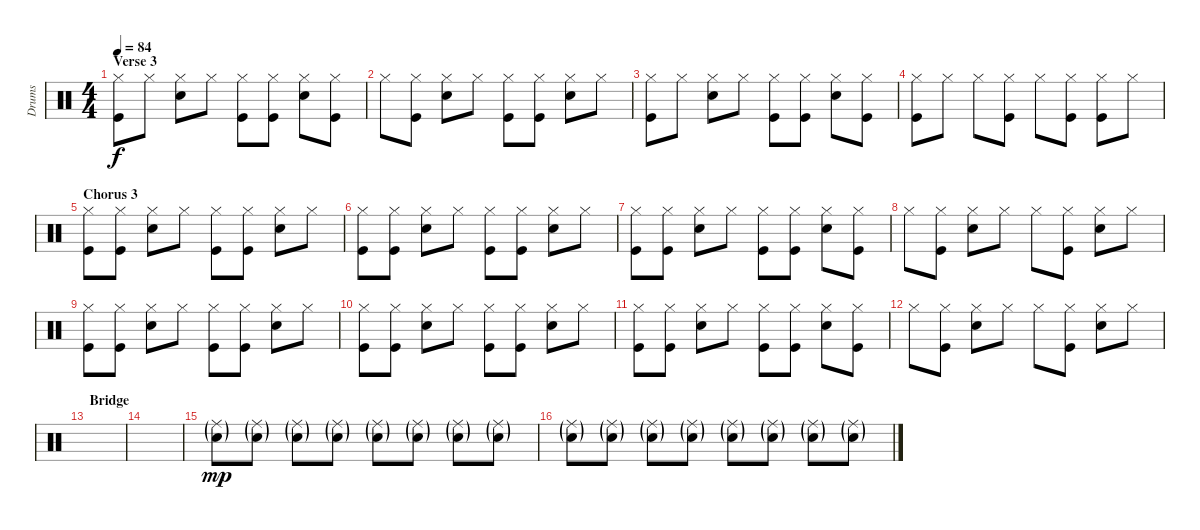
\track ("Drums" "Drums") {instrument percussion}
\staff {score}
\articulation defaults
\ts (4 4)
\section ("" "Verse 3")
\tempo 84
\clef neutral
\ks c
("Hi-Hat (closed)" "Kick (hit)").8{dy f} "Hi-Hat (closed)".8 ("Hi-Hat (closed)" "Snare (hit) 2").8 "Hi-Hat (closed)".8 ("Hi-Hat (closed)" "Kick (hit)").8 ("Hi-Hat (closed)" "Kick (hit)").8 ("Hi-Hat (closed)" "Snare (hit) 2").8 ("Hi-Hat (closed)" "Kick (hit)").8 |
"Hi-Hat (closed)".8 ("Hi-Hat (closed)" "Kick (hit)").8 ("Hi-Hat (closed)" "Snare (hit) 2").8 "Hi-Hat (closed)".8 ("Hi-Hat (closed)" "Kick (hit)").8 ("Hi-Hat (closed)" "Kick (hit)").8 ("Hi-Hat (closed)" "Snare (hit) 2").8 "Hi-Hat (closed)".8 |
("Hi-Hat (closed)" "Kick (hit)").8 "Hi-Hat (closed)".8 ("Hi-Hat (closed)" "Snare (hit) 2").8 "Hi-Hat (closed)".8 ("Hi-Hat (closed)" "Kick (hit)").8 ("Hi-Hat (closed)" "Kick (hit)").8 ("Hi-Hat (closed)" "Snare (hit) 2").8 ("Hi-Hat (closed)" "Kick (hit)").8 |
("Hi-Hat (closed)" "Kick (hit)").8 "Hi-Hat (closed)".8 "Hi-Hat (closed)".8 ("Hi-Hat (closed)" "Kick (hit)").8 "Hi-Hat (closed)".8 ("Hi-Hat (closed)" "Kick (hit)").8 ("Hi-Hat (closed)" "Kick (hit)").8 "Hi-Hat (closed)".8 |
\section ("" "Chorus 3")
("Hi-Hat (closed)" "Kick (hit)").8 ("Hi-Hat (closed)" "Kick (hit)").8 ("Hi-Hat (closed)" "Snare (hit) 2").8 "Hi-Hat (closed)".8 ("Hi-Hat (closed)" "Kick (hit)").8 ("Hi-Hat (closed)" "Kick (hit)").8 ("Hi-Hat (closed)" "Snare (hit) 2").8 "Hi-Hat (closed)".8 |
("Hi-Hat (closed)" "Kick (hit)").8 ("Hi-Hat (closed)" "Kick (hit)").8 ("Hi-Hat (closed)" "Snare (hit) 2").8 "Hi-Hat (closed)".8 ("Hi-Hat (closed)" "Kick (hit)").8 ("Hi-Hat (closed)" "Kick (hit)").8 ("Hi-Hat (closed)" "Snare (hit) 2").8 "Hi-Hat (closed)".8 |
("Hi-Hat (closed)" "Kick (hit)").8 ("Hi-Hat (closed)" "Kick (hit)").8 ("Hi-Hat (closed)" "Snare (hit) 2").8 "Hi-Hat (closed)".8 ("Hi-Hat (closed)" "Kick (hit)").8 ("Hi-Hat (closed)" "Kick (hit)").8 ("Hi-Hat (closed)" "Snare (hit) 2").8 ("Hi-Hat (closed)" "Kick (hit)").8 |
"Hi-Hat (closed)".8 ("Hi-Hat (closed)" "Kick (hit)").8 ("Hi-Hat (closed)" "Snare (hit) 2").8 "Hi-Hat (closed)".8 "Hi-Hat (closed)".8 ("Hi-Hat (closed)" "Kick (hit)").8 ("Hi-Hat (closed)" "Snare (hit) 2").8 "Hi-Hat (closed)".8 |
("Hi-Hat (closed)" "Kick (hit)").8 ("Hi-Hat (closed)" "Kick (hit)").8 ("Hi-Hat (closed)" "Snare (hit) 2").8 "Hi-Hat (closed)".8 ("Hi-Hat (closed)" "Kick (hit)").8 ("Hi-Hat (closed)" "Kick (hit)").8 ("Hi-Hat (closed)" "Snare (hit) 2").8 "Hi-Hat (closed)".8 |
("Hi-Hat (closed)" "Kick (hit)").8 ("Hi-Hat (closed)" "Kick (hit)").8 ("Hi-Hat (closed)" "Snare (hit) 2").8 "Hi-Hat (closed)".8 ("Hi-Hat (closed)" "Kick (hit)").8 ("Hi-Hat (closed)" "Kick (hit)").8 ("Hi-Hat (closed)" "Snare (hit) 2").8 "Hi-Hat (closed)".8 |
("Hi-Hat (closed)" "Kick (hit)").8 ("Hi-Hat (closed)" "Kick (hit)").8 ("Hi-Hat (closed)" "Snare (hit) 2").8 "Hi-Hat (closed)".8 ("Hi-Hat (closed)" "Kick (hit)").8 ("Hi-Hat (closed)" "Kick (hit)").8 ("Hi-Hat (closed)" "Snare (hit) 2").8 ("Hi-Hat (closed)" "Kick (hit)").8 |
"Hi-Hat (closed)".8 ("Hi-Hat (closed)" "Kick (hit)").8 ("Hi-Hat (closed)" "Snare (hit) 2").8 "Hi-Hat (closed)".8 "Hi-Hat (closed)".8 ("Hi-Hat (closed)" "Kick (hit)").8 ("Hi-Hat (closed)" "Snare (hit) 2").8 "Hi-Hat (closed)".8 |
\section ("" "Bridge")
|
|
("Ride (middle)"{g} "Snare (hit) 2"{g}).8{dy mp} ("Ride (middle)"{g} "Snare (hit) 2"{g}).8 ("Ride (middle)"{g} "Snare (hit) 2"{g}).8 ("Ride (middle)"{g} "Snare (hit) 2"{g}).8 ("Ride (middle)"{g} "Snare (hit) 2"{g}).8 ("Ride (middle)"{g} "Snare (hit) 2"{g}).8 ("Ride (middle)"{g} "Snare (hit) 2"{g}).8 ("Ride (middle)"{g} "Snare (hit) 2"{g}).8 |
("Ride (middle)"{g} "Snare (hit) 2"{g}).8 ("Ride (middle)"{g} "Snare (hit) 2"{g}).8 ("Ride (middle)"{g} "Snare (hit) 2"{g}).8 ("Ride (middle)"{g} "Snare (hit) 2"{g}).8 ("Ride (middle)"{g} "Snare (hit) 2"{g}).8 ("Ride (middle)"{g} "Snare (hit) 2"{g}).8 ("Ride (middle)"{g} "Snare (hit) 2"{g}).8 ("Ride (middle)"{g} "Snare (hit) 2"{g}).8
